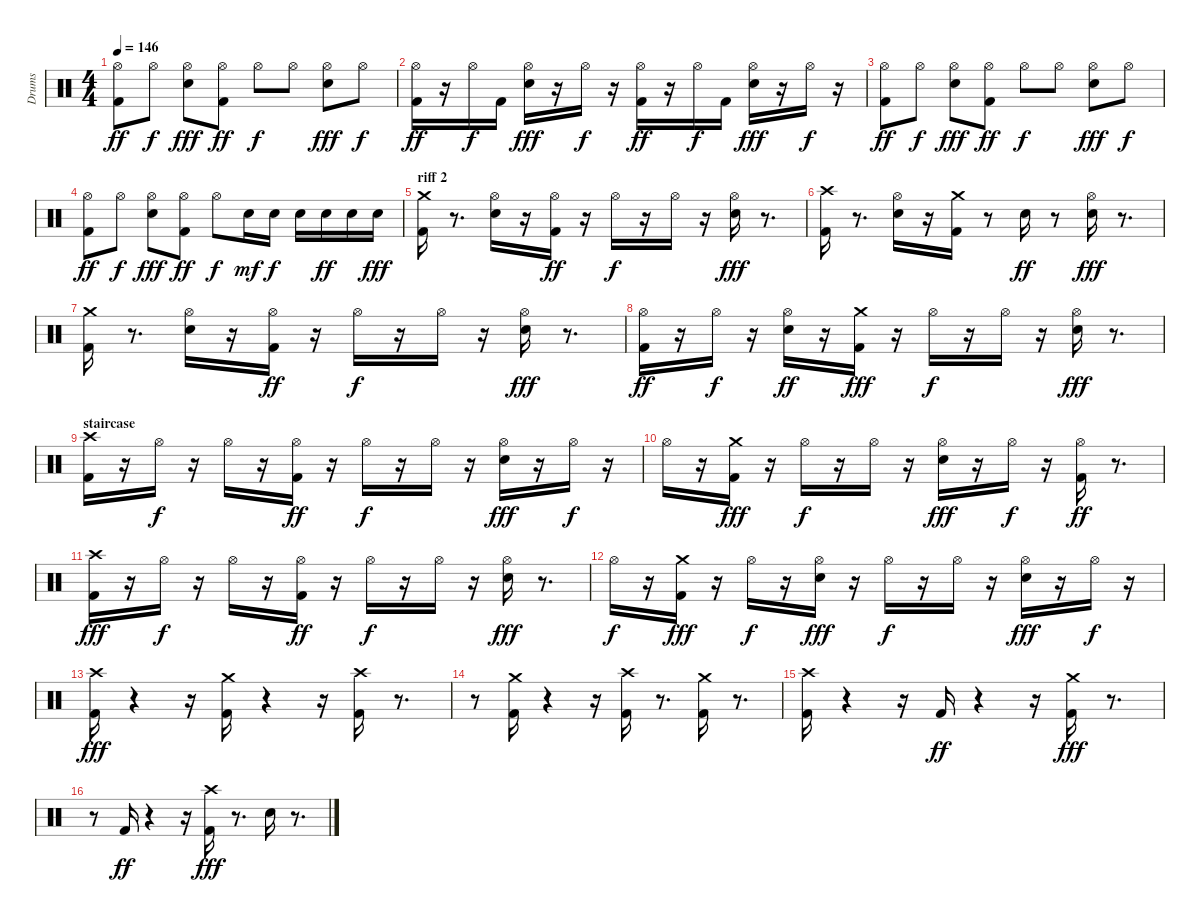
\track ("Drums" "Drums") {instrument percussion}
\staff {score}
\articulation defaults
\ts (4 4)
\tempo 146
\clef neutral
\ks c
("Kick (hit) 2" "Hi-Hat (open)").8{dy ff} "Hi-Hat (open)".8{dy f} ("Snare (hit) 2" "Hi-Hat (open)").8{dy fff} ("Kick (hit) 2" "Hi-Hat (open)").8{dy ff} "Hi-Hat (open)".8{dy f} "Hi-Hat (open)".8 ("Snare (hit) 2" "Hi-Hat (open)").8{dy fff} "Hi-Hat (open)".8{dy f} |
("Kick (hit) 2" "Hi-Hat (open)").16{dy ff} r.16 "Hi-Hat (open)".16{dy f} "Kick (hit) 2".16 ("Snare (hit) 2" "Hi-Hat (open)").16{dy fff} r.16 "Hi-Hat (open)".16{dy f} r.16 ("Kick (hit) 2" "Hi-Hat (open)").16{dy ff} r.16 "Hi-Hat (open)".16{dy f} "Kick (hit) 2".16 ("Snare (hit) 2" "Hi-Hat (open)").16{dy fff} r.16 "Hi-Hat (open)".16{dy f} r.16 |
("Kick (hit) 2" "Hi-Hat (open)").8{dy ff} "Hi-Hat (open)".8{dy f} ("Snare (hit) 2" "Hi-Hat (open)").8{dy fff} ("Kick (hit) 2" "Hi-Hat (open)").8{dy ff} "Hi-Hat (open)".8{dy f} "Hi-Hat (open)".8 ("Snare (hit) 2" "Hi-Hat (open)").8{dy fff} "Hi-Hat (open)".8{dy f} |
("Kick (hit) 2" "Hi-Hat (open)").8{dy ff} "Hi-Hat (open)".8{dy f} ("Snare (hit) 2" "Hi-Hat (open)").8{dy fff} ("Kick (hit) 2" "Hi-Hat (open)").8{dy ff} "Hi-Hat (open)".8{dy f} "Snare (hit) 2".16{dy mf} "Snare (hit) 2".16{dy f} "Snare (hit) 2".16 "Snare (hit) 2".16{dy ff} "Snare (hit) 2".16 "Snare (hit) 2".16{dy fff} |
\section ("" "riff 2")
("Kick (hit) 2" "Crash medium (hit)").16 r.8{d} ("Snare (hit) 2" "Hi-Hat (open)").16 r.16 ("Kick (hit) 2" "Hi-Hat (open)").16{dy ff} r.16 "Hi-Hat (open)".16{dy f} r.16 "Hi-Hat (open)".16 r.16 ("Snare (hit) 2" "Hi-Hat (open)").16{dy fff} r.8{d} |
("Kick (hit) 2" "Crash high (hit)").16 r.8{d} ("Snare (hit) 2" "Hi-Hat (open)").16 r.16 ("Kick (hit) 2" "Crash medium (hit)").16 r.8 "Snare (hit) 2".16{dy ff} r.8 ("Snare (hit) 2" "Hi-Hat (open)").16{dy fff} r.8{d} |
("Kick (hit) 2" "Crash medium (hit)").16 r.8{d} ("Snare (hit) 2" "Hi-Hat (open)").16 r.16 ("Kick (hit) 2" "Hi-Hat (open)").16{dy ff} r.16 "Hi-Hat (open)".16{dy f} r.16 "Hi-Hat (open)".16 r.16 ("Snare (hit) 2" "Hi-Hat (open)").16{dy fff} r.8{d} |
("Kick (hit) 2" "Hi-Hat (open)").16{dy ff} r.16 "Hi-Hat (open)".16{dy f} r.16 ("Snare (hit) 2" "Hi-Hat (open)").16{dy ff} r.16 ("Kick (hit) 2" "Crash medium (hit)").16{dy fff} r.16 "Hi-Hat (open)".16{dy f} r.16 "Hi-Hat (open)".16 r.16 ("Snare (hit) 2" "Hi-Hat (open)").16{dy fff} r.8{d} |
\section ("" "staircase")
("Kick (hit) 2" "Crash high (hit)").16 r.16 "Hi-Hat (open)".16{dy f} r.16 "Hi-Hat (open)".16 r.16 ("Kick (hit) 2" "Hi-Hat (open)").16{dy ff} r.16 "Hi-Hat (open)".16{dy f} r.16 "Hi-Hat (open)".16 r.16 ("Snare (hit) 2" "Hi-Hat (open)").16{dy fff} r.16 "Hi-Hat (open)".16{dy f} r.16 |
"Hi-Hat (open)".16 r.16 ("Kick (hit) 2" "Crash medium (hit)").16{dy fff} r.16 "Hi-Hat (open)".16{dy f} r.16 "Hi-Hat (open)".16 r.16 ("Snare (hit) 2" "Hi-Hat (open)").16{dy fff} r.16 "Hi-Hat (open)".16{dy f} r.16 ("Kick (hit) 2" "Hi-Hat (open)").16{dy ff} r.8{d} |
("Kick (hit) 2" "Crash high (hit)").16{dy fff} r.16 "Hi-Hat (open)".16{dy f} r.16 "Hi-Hat (open)".16 r.16 ("Kick (hit) 2" "Hi-Hat (open)").16{dy ff} r.16 "Hi-Hat (open)".16{dy f} r.16 "Hi-Hat (open)".16 r.16 ("Snare (hit) 2" "Hi-Hat (open)").16{dy fff} r.8{d} |
"Hi-Hat (open)".16{dy f} r.16 ("Kick (hit) 2" "Crash medium (hit)").16{dy fff} r.16 "Hi-Hat (open)".16{dy f} r.16 ("Snare (hit) 2" "Hi-Hat (open)").16{dy fff} r.16 "Hi-Hat (open)".16{dy f} r.16 "Hi-Hat (open)".16 r.16 ("Snare (hit) 2" "Hi-Hat (open)").16{dy fff} r.16 "Hi-Hat (open)".16{dy f} r.16 |
("Kick (hit) 2" "Crash high (hit)").16{dy fff} r.4 r.16 ("Kick (hit) 2" "Crash medium (hit)").16 r.4 r.16 ("Kick (hit) 2" "Crash high (hit)").16 r.8{d} |
r.8 ("Kick (hit) 2" "Crash medium (hit)").16 r.4 r.16 ("Kick (hit) 2" "Crash high (hit)").16 r.8{d} ("Kick (hit) 2" "Crash medium (hit)").16 r.8{d} |
("Kick (hit) 2" "Crash high (hit)").16 r.4 r.16 "Kick (hit) 2".16{dy ff} r.4 r.16 ("Kick (hit) 2" "Crash medium (hit)").16{dy fff} r.8{d} |
r.8 "Kick (hit) 2".16{dy ff} r.4 r.16 ("Kick (hit) 2" "Crash high (hit)").16{dy fff} r.8{d} "Snare (hit) 2".16 r.8{d}
